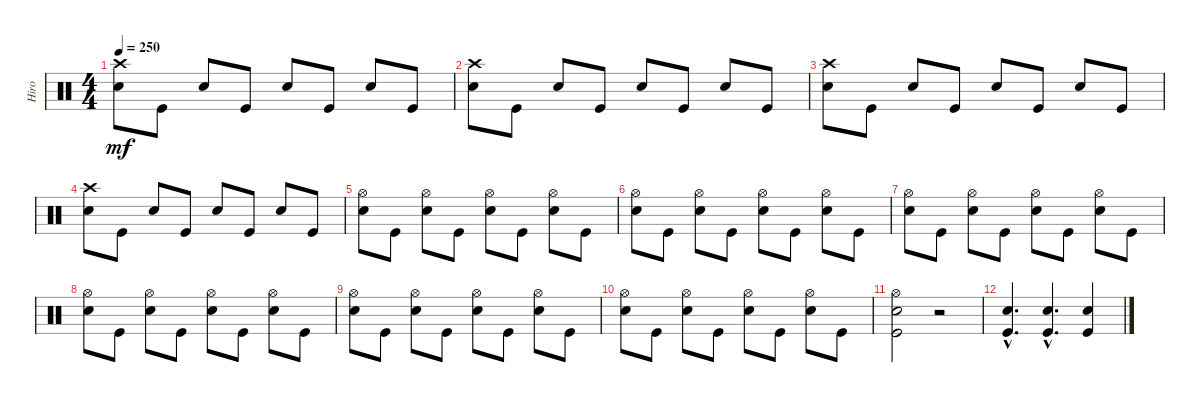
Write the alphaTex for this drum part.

\track ("Hiro" "Hiro") {instrument percussion}
\staff {score}
\articulation defaults
\ts (4 4)
\tempo 250
\clef neutral
\ks c
("Electric Snare (hit)" "Crash high (hit)").8{dy mf} "Kick (hit)".8 "Electric Snare (hit)".8 "Kick (hit)".8 "Electric Snare (hit)".8 "Kick (hit)".8 "Electric Snare (hit)".8 "Kick (hit)".8 |
("Crash high (hit)" "Electric Snare (hit)").8 "Kick (hit)".8 "Electric Snare (hit)".8 "Kick (hit)".8 "Electric Snare (hit)".8 "Kick (hit)".8 "Electric Snare (hit)".8 "Kick (hit)".8 |
("Electric Snare (hit)" "Crash high (hit)").8 "Kick (hit)".8 "Electric Snare (hit)".8 "Kick (hit)".8 "Electric Snare (hit)".8 "Kick (hit)".8 "Electric Snare (hit)".8 "Kick (hit)".8 |
("Crash high (hit)" "Electric Snare (hit)").8 "Kick (hit)".8 "Electric Snare (hit)".8 "Kick (hit)".8 "Electric Snare (hit)".8 "Kick (hit)".8 "Electric Snare (hit)".8 "Kick (hit)".8 |
("Electric Snare (hit)" "Hi-Hat (open)").8 "Kick (hit)".8 ("Electric Snare (hit)" "Hi-Hat (open)").8 "Kick (hit)".8 ("Electric Snare (hit)" "Hi-Hat (open)").8 "Kick (hit)".8 ("Electric Snare (hit)" "Hi-Hat (open)").8 "Kick (hit)".8 |
("Hi-Hat (open)" "Electric Snare (hit)").8 "Kick (hit)".8 ("Hi-Hat (open)" "Electric Snare (hit)").8 "Kick (hit)".8 ("Hi-Hat (open)" "Electric Snare (hit)").8 "Kick (hit)".8 ("Hi-Hat (open)" "Electric Snare (hit)").8 "Kick (hit)".8 |
("Hi-Hat (open)" "Electric Snare (hit)").8 "Kick (hit)".8 ("Hi-Hat (open)" "Electric Snare (hit)").8 "Kick (hit)".8 ("Hi-Hat (open)" "Electric Snare (hit)").8 "Kick (hit)".8 ("Hi-Hat (open)" "Electric Snare (hit)").8 "Kick (hit)".8 |
("Hi-Hat (open)" "Electric Snare (hit)").8 "Kick (hit)".8 ("Hi-Hat (open)" "Electric Snare (hit)").8 "Kick (hit)".8 ("Hi-Hat (open)" "Electric Snare (hit)").8 "Kick (hit)".8 ("Hi-Hat (open)" "Electric Snare (hit)").8 "Kick (hit)".8 |
("Electric Snare (hit)" "Hi-Hat (open)").8 "Kick (hit)".8 ("Electric Snare (hit)" "Hi-Hat (open)").8 "Kick (hit)".8 ("Electric Snare (hit)" "Hi-Hat (open)").8 "Kick (hit)".8 ("Electric Snare (hit)" "Hi-Hat (open)").8 "Kick (hit)".8 |
("Electric Snare (hit)" "Hi-Hat (open)").8 "Kick (hit)".8 ("Electric Snare (hit)" "Hi-Hat (open)").8 "Kick (hit)".8 ("Electric Snare (hit)" "Hi-Hat (open)").8 "Kick (hit)".8 ("Electric Snare (hit)" "Hi-Hat (open)").8 "Kick (hit)".8 |
("Kick (hit)" "Electric Snare (hit)" "Hi-Hat (open)").2 r.2 |
("Kick (hit)" "Electric Snare (hit)"{hac}).4{d} ("Kick (hit)" "Electric Snare (hit)"{hac}).4{d} ("Kick (hit)" "Electric Snare (hit)").4
